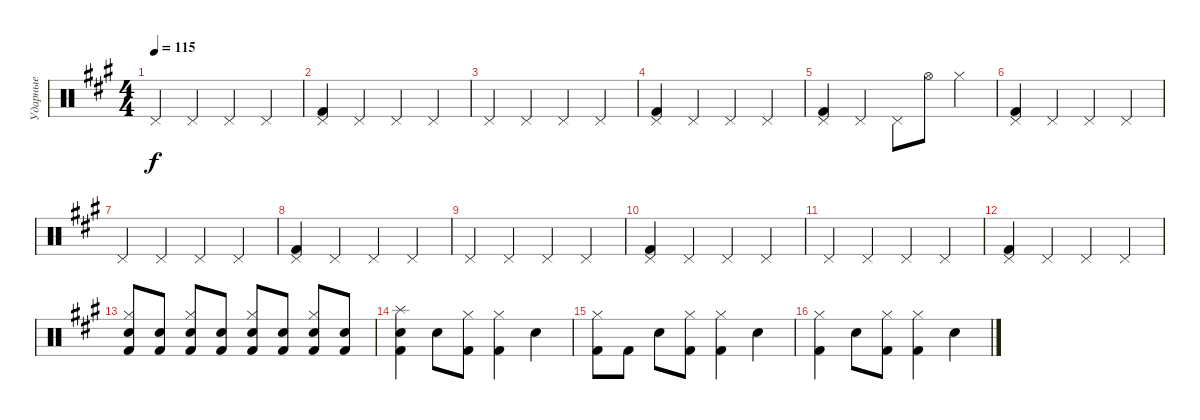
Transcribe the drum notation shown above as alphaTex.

\track ("Ударные" "Ударные") {instrument percussion}
\staff {score}
\articulation defaults
\ts (4 4)
\tempo 115
\clef neutral
\ks f#minor "Pedal Hi-Hat (hit)".4{dy f} "Pedal Hi-Hat (hit)".4 "Pedal Hi-Hat (hit)".4 "Pedal Hi-Hat (hit)".4
|
("Pedal Hi-Hat (hit)" "Kick (hit) 2").4 "Pedal Hi-Hat (hit)".4 "Pedal Hi-Hat (hit)".4 "Pedal Hi-Hat (hit)".4 |
"Pedal Hi-Hat (hit)".4 "Pedal Hi-Hat (hit)".4 "Pedal Hi-Hat (hit)".4 "Pedal Hi-Hat (hit)".4 |
("Pedal Hi-Hat (hit)" "Kick (hit) 2").4 "Pedal Hi-Hat (hit)".4 "Pedal Hi-Hat (hit)".4 "Pedal Hi-Hat (hit)".4 |
("Pedal Hi-Hat (hit)" "Kick (hit) 2").4 "Pedal Hi-Hat (hit)".4 "Pedal Hi-Hat (hit)".8 "Hi-Hat (open)".8 "Hi-Hat (closed)".4 |
("Pedal Hi-Hat (hit)" "Kick (hit) 2").4 "Pedal Hi-Hat (hit)".4 "Pedal Hi-Hat (hit)".4 "Pedal Hi-Hat (hit)".4 |
"Pedal Hi-Hat (hit)".4 "Pedal Hi-Hat (hit)".4 "Pedal Hi-Hat (hit)".4 "Pedal Hi-Hat (hit)".4 |
("Pedal Hi-Hat (hit)" "Kick (hit) 2").4 "Pedal Hi-Hat (hit)".4 "Pedal Hi-Hat (hit)".4 "Pedal Hi-Hat (hit)".4 |
"Pedal Hi-Hat (hit)".4 "Pedal Hi-Hat (hit)".4 "Pedal Hi-Hat (hit)".4 "Pedal Hi-Hat (hit)".4 |
("Pedal Hi-Hat (hit)" "Kick (hit) 2").4 "Pedal Hi-Hat (hit)".4 "Pedal Hi-Hat (hit)".4 "Pedal Hi-Hat (hit)".4 |
"Pedal Hi-Hat (hit)".4 "Pedal Hi-Hat (hit)".4 "Pedal Hi-Hat (hit)".4 "Pedal Hi-Hat (hit)".4 |
("Pedal Hi-Hat (hit)" "Kick (hit) 2").4 "Pedal Hi-Hat (hit)".4 "Pedal Hi-Hat (hit)".4 "Pedal Hi-Hat (hit)".4 |
("Hi-Hat (closed)" "Electric Snare (hit)" "Kick (hit) 2").8{volume 8} ("Electric Snare (hit)" "Kick (hit) 2").8 ("Hi-Hat (closed)" "Electric Snare (hit)" "Kick (hit) 2").8{volume 10} ("Electric Snare (hit)" "Kick (hit) 2").8 ("Hi-Hat (closed)" "Electric Snare (hit)" "Kick (hit) 2").8{volume 12} ("Electric Snare (hit)" "Kick (hit) 2").8 ("Hi-Hat (closed)" "Electric Snare (hit)" "Kick (hit) 2").8{volume 16} ("Electric Snare (hit)" "Kick (hit) 2").8 |
("Snare (hit) 2" "Splash (hit)" "Kick (hit) 2").4 "Snare (hit) 2".8 ("Hi-Hat (closed)" "Kick (hit) 2").8{volume 12} ("Hi-Hat (closed)" "Kick (hit) 2").4{volume 11} "Snare (hit) 2".4 |
("Hi-Hat (closed)" "Kick (hit) 2").8 "Kick (hit) 2".8 "Snare (hit) 2".8 ("Hi-Hat (closed)" "Kick (hit) 2").8{volume 12} ("Hi-Hat (closed)" "Kick (hit) 2").4{volume 11} "Snare (hit) 2".4 |
("Hi-Hat (closed)" "Kick (hit) 2").4 "Snare (hit) 2".8 ("Hi-Hat (closed)" "Kick (hit) 2").8{volume 12} ("Hi-Hat (closed)" "Kick (hit) 2").4{volume 11} "Snare (hit) 2".4
